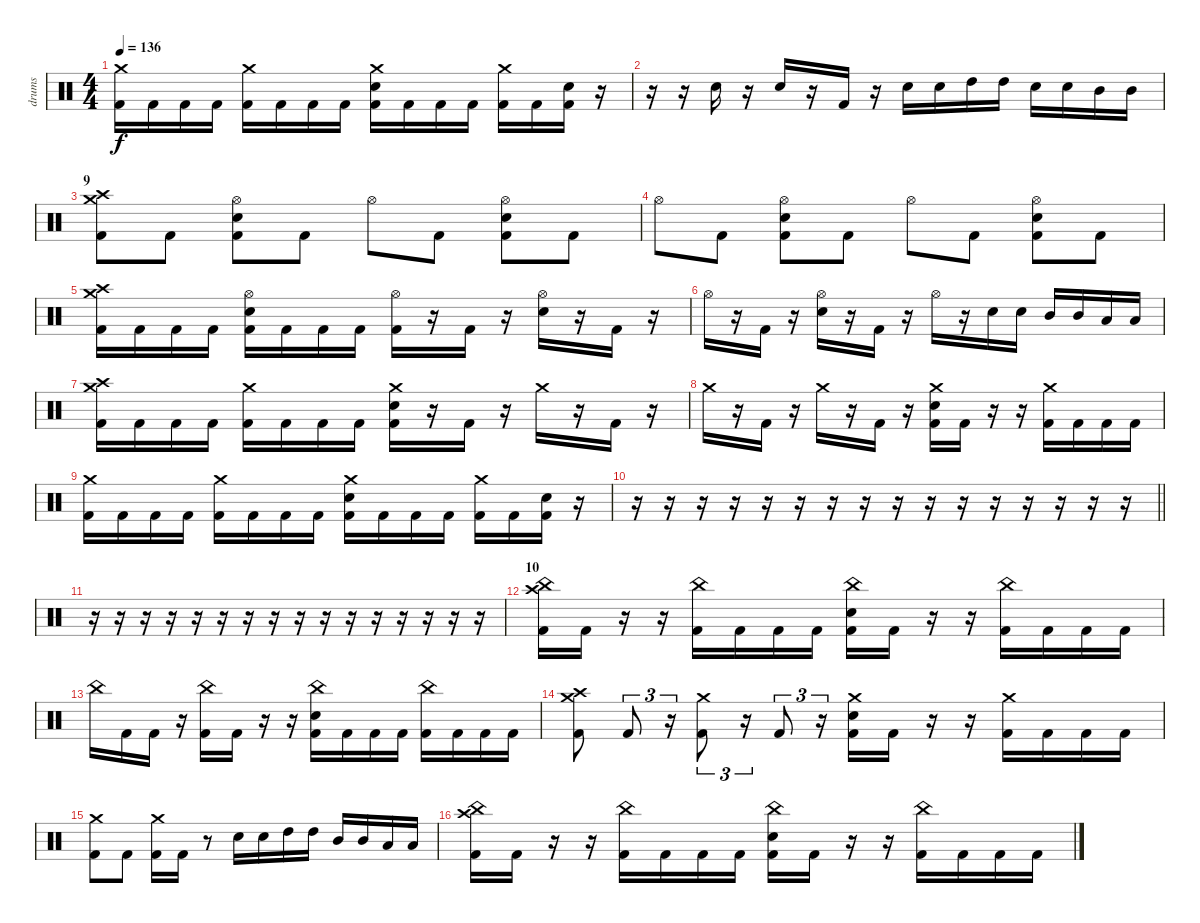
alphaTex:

\track ("drums" "drums") {instrument percussion}
\staff {score}
\articulation defaults
\ts (4 4)
\tempo 136
\clef neutral
\ks c
("Crash medium (hit)" "Kick (hit) 2").16{dy f} "Kick (hit) 2".16 "Kick (hit) 2".16 "Kick (hit) 2".16 ("Crash medium (hit)" "Kick (hit) 2").16 "Kick (hit) 2".16 "Kick (hit) 2".16 "Kick (hit) 2".16 ("Crash medium (hit)" "Electric Snare (hit)" "Kick (hit) 2").16 "Kick (hit) 2".16 "Kick (hit) 2".16 "Kick (hit) 2".16 ("Crash medium (hit)" "Kick (hit) 2").16 "Kick (hit) 2".16 ("Electric Snare (hit)" "Kick (hit) 2").16 r.16 |
r.16 r.16 "Electric Snare (hit)".16 r.16 "Electric Snare (hit)".16 r.16 "Kick (hit) 2".16 r.16 "Electric Snare (hit)".16 "Electric Snare (hit)".16 "High Tom (hit)".16 "High Tom (hit)".16 "Electric Snare (hit)".16 "Electric Snare (hit)".16 "Mid Tom (hit)".16 "Mid Tom (hit)".16 |
\section ("" "9")
("Crash medium (hit)" "Crash high (hit)" "Kick (hit) 2").8 "Kick (hit) 2".8 ("Hi-Hat (open)" "Electric Snare (hit)" "Kick (hit) 2").8 "Kick (hit) 2".8 "Hi-Hat (open)".8 "Kick (hit) 2".8 ("Hi-Hat (open)" "Electric Snare (hit)" "Kick (hit) 2").8 "Kick (hit) 2".8 |
"Hi-Hat (open)".8 "Kick (hit) 2".8 ("Hi-Hat (open)" "Electric Snare (hit)" "Kick (hit) 2").8 "Kick (hit) 2".8 "Hi-Hat (open)".8 "Kick (hit) 2".8 ("Hi-Hat (open)" "Electric Snare (hit)" "Kick (hit) 2").8 "Kick (hit) 2".8 |
("Crash medium (hit)" "Crash high (hit)" "Kick (hit) 2").16 "Kick (hit) 2".16 "Kick (hit) 2".16 "Kick (hit) 2".16 ("Hi-Hat (open)" "Electric Snare (hit)" "Kick (hit) 2").16 "Kick (hit) 2".16 "Kick (hit) 2".16 "Kick (hit) 2".16 ("Hi-Hat (open)" "Kick (hit) 2").16 r.16 "Kick (hit) 2".16 r.16 ("Hi-Hat (open)" "Electric Snare (hit)").16 r.16 "Kick (hit) 2".16 r.16 |
"Hi-Hat (open)".16 r.16 "Kick (hit) 2".16 r.16 ("Hi-Hat (open)" "Electric Snare (hit)").16 r.16 "Kick (hit) 2".16 r.16 "Hi-Hat (open)".16 r.16 "Electric Snare (hit)".16 "Electric Snare (hit)".16 "Mid Tom (hit)".16 "Mid Tom (hit)".16 "Low Floor Tom (hit)".16 "Low Floor Tom (hit)".16 |
("Crash medium (hit)" "Crash high (hit)" "Kick (hit) 2").16 "Kick (hit) 2".16 "Kick (hit) 2".16 "Kick (hit) 2".16 ("Crash medium (hit)" "Kick (hit) 2").16 "Kick (hit) 2".16 "Kick (hit) 2".16 "Kick (hit) 2".16 ("Crash medium (hit)" "Electric Snare (hit)" "Kick (hit) 2").16 r.16 "Kick (hit) 2".16 r.16 "Crash medium (hit)".16 r.16 "Kick (hit) 2".16 r.16 |
"Crash medium (hit)".16 r.16 "Kick (hit) 2".16 r.16 "Crash medium (hit)".16 r.16 "Kick (hit) 2".16 r.16 ("Crash medium (hit)" "Electric Snare (hit)" "Kick (hit) 2").16 "Kick (hit) 2".16 r.16 r.16 ("Crash medium (hit)" "Kick (hit) 2").16 "Kick (hit) 2".16 "Kick (hit) 2".16 "Kick (hit) 2".16 |
("Crash medium (hit)" "Kick (hit) 2").16 "Kick (hit) 2".16 "Kick (hit) 2".16 "Kick (hit) 2".16 ("Crash medium (hit)" "Kick (hit) 2").16 "Kick (hit) 2".16 "Kick (hit) 2".16 "Kick (hit) 2".16 ("Crash medium (hit)" "Electric Snare (hit)" "Kick (hit) 2").16 "Kick (hit) 2".16 "Kick (hit) 2".16 "Kick (hit) 2".16 ("Crash medium (hit)" "Kick (hit) 2").16 "Kick (hit) 2".16 ("Electric Snare (hit)" "Kick (hit) 2").16 r.16 |
\barLineRight lightlight
r.16 r.16 r.16 r.16 r.16 r.16 r.16 r.16 r.16 r.16 r.16 r.16 r.16 r.16 r.16 r.16 |
r.16 r.16 r.16 r.16 r.16 r.16 r.16 r.16 r.16 r.16 r.16 r.16 r.16 r.16 r.16 r.16 |
\section ("" "10")
("Crash high (hit)" "China (hit)" "Kick (hit) 2").16 "Kick (hit) 2".16 r.16 r.16 ("China (hit)" "Kick (hit) 2").16 "Kick (hit) 2".16 "Kick (hit) 2".16 "Kick (hit) 2".16 ("China (hit)" "Electric Snare (hit)" "Kick (hit) 2").16 "Kick (hit) 2".16 r.16 r.16 ("China (hit)" "Kick (hit) 2").16 "Kick (hit) 2".16 "Kick (hit) 2".16 "Kick (hit) 2".16 |
"China (hit)".16 "Kick (hit) 2".16 "Kick (hit) 2".16 r.16 ("China (hit)" "Kick (hit) 2").16 "Kick (hit) 2".16 r.16 r.16 ("China (hit)" "Electric Snare (hit)" "Kick (hit) 2").16 "Kick (hit) 2".16 "Kick (hit) 2".16 "Kick (hit) 2".16 ("China (hit)" "Kick (hit) 2").16 "Kick (hit) 2".16 "Kick (hit) 2".16 "Kick (hit) 2".16 |
("Crash medium (hit)" "Crash high (hit)" "Kick (hit) 2").8 "Kick (hit) 2".8{tu (3 2)} r.16{tu (3 2)} ("Crash medium (hit)" "Kick (hit) 2").8{tu (3 2)} r.16{tu (3 2)} "Kick (hit) 2".8{tu (3 2)} r.16{tu (3 2)} ("Crash medium (hit)" "Electric Snare (hit)" "Kick (hit) 2").16 "Kick (hit) 2".16 r.16 r.16 ("Crash medium (hit)" "Kick (hit) 2").16 "Kick (hit) 2".16 "Kick (hit) 2".16 "Kick (hit) 2".16 |
("Crash medium (hit)" "Kick (hit) 2").8 "Kick (hit) 2".8 ("Crash medium (hit)" "Kick (hit) 2").16 "Kick (hit) 2".16 r.8 "Electric Snare (hit)".16 "Electric Snare (hit)".16 "High Tom (hit)".16 "High Tom (hit)".16 "Mid Tom (hit)".16 "Mid Tom (hit)".16 "Low Floor Tom (hit)".16 "Low Floor Tom (hit)".16 |
("Crash high (hit)" "China (hit)" "Kick (hit) 2").16 "Kick (hit) 2".16 r.16 r.16 ("China (hit)" "Kick (hit) 2").16 "Kick (hit) 2".16 "Kick (hit) 2".16 "Kick (hit) 2".16 ("China (hit)" "Electric Snare (hit)" "Kick (hit) 2").16 "Kick (hit) 2".16 r.16 r.16 ("China (hit)" "Kick (hit) 2").16 "Kick (hit) 2".16 "Kick (hit) 2".16 "Kick (hit) 2".16
